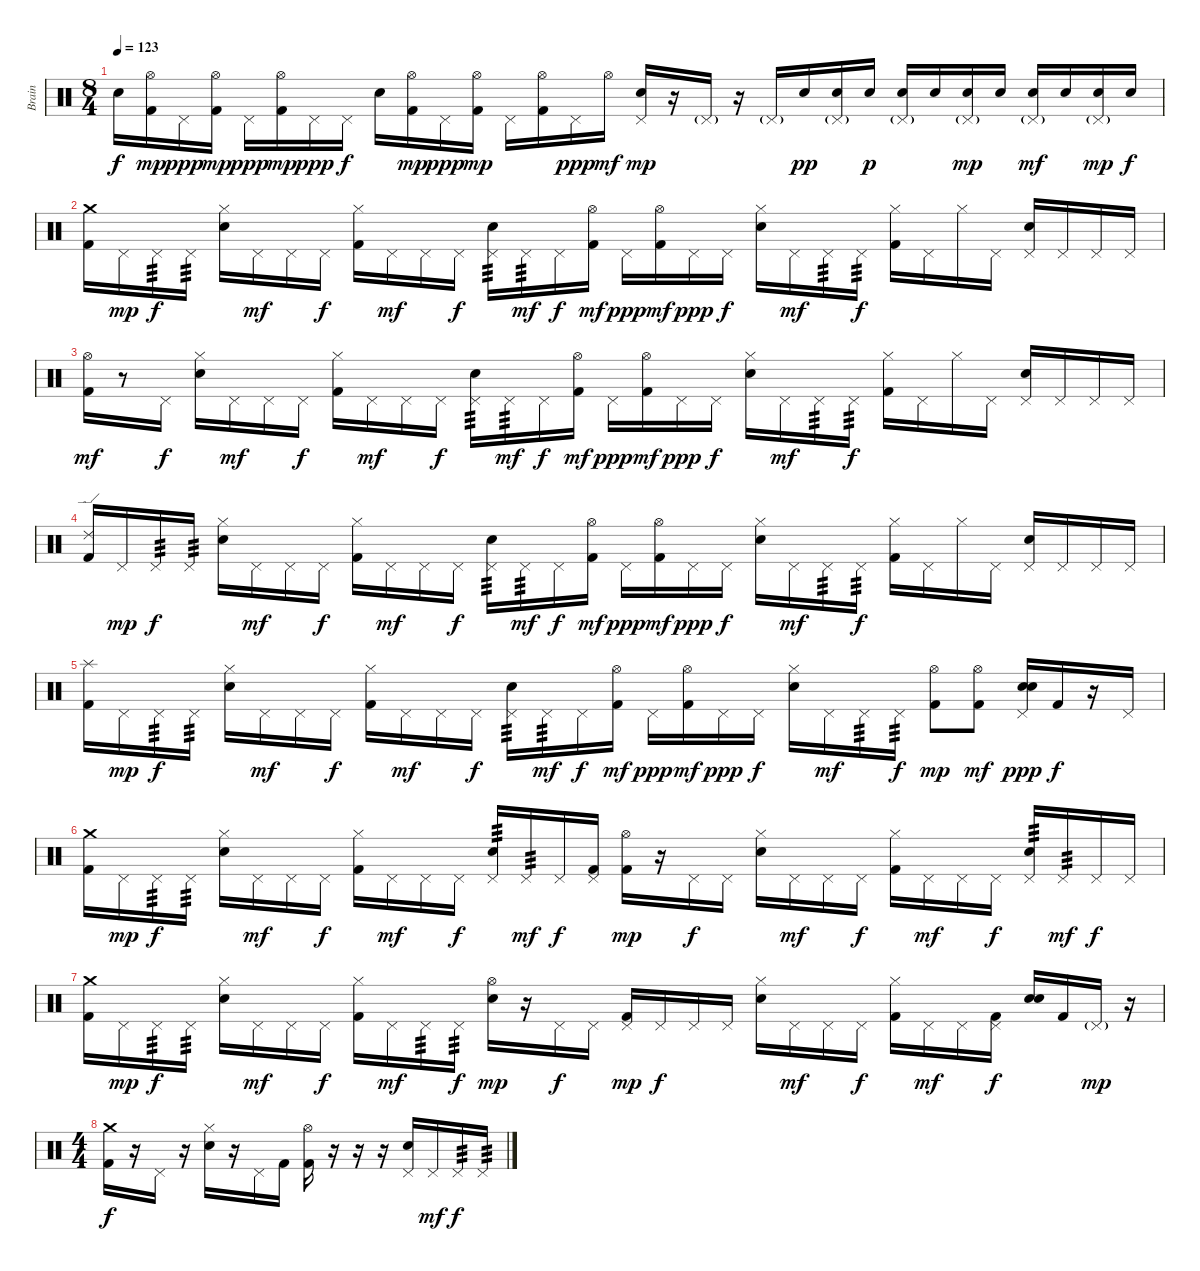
\track ("Brain" "Brain") {instrument percussion}
\staff {score}
\articulation defaults
\ts (8 4)
\tempo 123
\clef neutral
\ks c "Electric Snare (hit)".16{dy f}
("Hi-Hat (open)" "Kick (hit) 2").16{dy mp} "Pedal Hi-Hat (hit)".16{dy ppp} ("Hi-Hat (open)" "Kick (hit) 2").16{dy mp} "Pedal Hi-Hat (hit)".16{dy ppp} ("Hi-Hat (open)" "Kick (hit) 2").16{dy mp} "Pedal Hi-Hat (hit)".16{dy ppp} "Pedal Hi-Hat (hit)".16{dy f} "Electric Snare (hit)".16 ("Hi-Hat (open)" "Kick (hit) 2").16{dy mp} "Pedal Hi-Hat (hit)".16{dy ppp} ("Hi-Hat (open)" "Kick (hit) 2").16{dy mp} "Pedal Hi-Hat (hit)".16 ("Hi-Hat (open)" "Kick (hit) 2").16 "Pedal Hi-Hat (hit)".16{dy ppp} "Hi-Hat (open)".16{dy mf} ("Pedal Hi-Hat (hit)" "Electric Snare (hit)").16{dy mp} r.16 "Pedal Hi-Hat (hit)"{g}.16 r.16 "Pedal Hi-Hat (hit)"{g}.16 "Electric Snare (hit)".16{dy pp} ("Pedal Hi-Hat (hit)"{g} "Electric Snare (hit)").16 "Electric Snare (hit)".16{dy p} ("Pedal Hi-Hat (hit)"{g} "Electric Snare (hit)").16 "Electric Snare (hit)".16 ("Pedal Hi-Hat (hit)"{g} "Electric Snare (hit)").16{dy mp} "Electric Snare (hit)".16 ("Pedal Hi-Hat (hit)"{g} "Electric Snare (hit)").16{dy mf} "Electric Snare (hit)".16 ("Pedal Hi-Hat (hit)"{g} "Electric Snare (hit)").16{dy mp} "Electric Snare (hit)".16{dy f} |
("Crash medium (hit)" "Kick (hit) 2").16 "Pedal Hi-Hat (hit)".16{dy mp} "Pedal Hi-Hat (hit)".16{tp 3 dy f} "Pedal Hi-Hat (hit)".16{tp 3} ("Hi-Hat (closed)" "Electric Snare (hit)").16 "Pedal Hi-Hat (hit)".16{dy mf} "Pedal Hi-Hat (hit)".16 "Pedal Hi-Hat (hit)".16{dy f} ("Hi-Hat (closed)" "Kick (hit) 2").16 "Pedal Hi-Hat (hit)".16{dy mf} "Pedal Hi-Hat (hit)".16 "Pedal Hi-Hat (hit)".16{dy f} ("Pedal Hi-Hat (hit)" "Electric Snare (hit)").16{tp 3} "Pedal Hi-Hat (hit)".16{tp 3 dy mf} "Pedal Hi-Hat (hit)".16{dy f} ("Hi-Hat (open)" "Kick (hit) 2").16{dy mf} "Pedal Hi-Hat (hit)".16{dy ppp} ("Hi-Hat (open)" "Kick (hit) 2").16{dy mf} "Pedal Hi-Hat (hit)".16{dy ppp} "Pedal Hi-Hat (hit)".16{dy f} ("Hi-Hat (closed)" "Electric Snare (hit)").16 "Pedal Hi-Hat (hit)".16{dy mf} "Pedal Hi-Hat (hit)".16{tp 3} "Pedal Hi-Hat (hit)".16{tp 3 dy f} ("Hi-Hat (closed)" "Kick (hit) 2").16 "Pedal Hi-Hat (hit)".16 "Hi-Hat (closed)".16 "Pedal Hi-Hat (hit)".16 ("Pedal Hi-Hat (hit)" "Electric Snare (hit)").16 "Pedal Hi-Hat (hit)".16 "Pedal Hi-Hat (hit)".16 "Pedal Hi-Hat (hit)".16 |
("Hi-Hat (open)" "Kick (hit) 2").16{dy mf} r.8 "Pedal Hi-Hat (hit)".16{dy f} ("Hi-Hat (closed)" "Electric Snare (hit)").16 "Pedal Hi-Hat (hit)".16{dy mf} "Pedal Hi-Hat (hit)".16 "Pedal Hi-Hat (hit)".16{dy f} ("Hi-Hat (closed)" "Kick (hit) 2").16 "Pedal Hi-Hat (hit)".16{dy mf} "Pedal Hi-Hat (hit)".16 "Pedal Hi-Hat (hit)".16{dy f} ("Pedal Hi-Hat (hit)" "Electric Snare (hit)").16{tp 3} "Pedal Hi-Hat (hit)".16{tp 3 dy mf} "Pedal Hi-Hat (hit)".16{dy f} ("Hi-Hat (open)" "Kick (hit) 2").16{dy mf} "Pedal Hi-Hat (hit)".16{dy ppp} ("Hi-Hat (open)" "Kick (hit) 2").16{dy mf} "Pedal Hi-Hat (hit)".16{dy ppp} "Pedal Hi-Hat (hit)".16{dy f} ("Hi-Hat (closed)" "Electric Snare (hit)").16 "Pedal Hi-Hat (hit)".16{dy mf} "Pedal Hi-Hat (hit)".16{tp 3} "Pedal Hi-Hat (hit)".16{tp 3 dy f} ("Hi-Hat (closed)" "Kick (hit) 2").16 "Pedal Hi-Hat (hit)".16 "Hi-Hat (closed)".16 "Pedal Hi-Hat (hit)".16 ("Pedal Hi-Hat (hit)" "Electric Snare (hit)").16 "Pedal Hi-Hat (hit)".16 "Pedal Hi-Hat (hit)".16 "Pedal Hi-Hat (hit)".16 |
("Ride (edge) 2" "Kick (hit) 2").16 "Pedal Hi-Hat (hit)".16{dy mp} "Pedal Hi-Hat (hit)".16{tp 3 dy f} "Pedal Hi-Hat (hit)".16{tp 3} ("Hi-Hat (closed)" "Electric Snare (hit)").16 "Pedal Hi-Hat (hit)".16{dy mf} "Pedal Hi-Hat (hit)".16 "Pedal Hi-Hat (hit)".16{dy f} ("Hi-Hat (closed)" "Kick (hit) 2").16 "Pedal Hi-Hat (hit)".16{dy mf} "Pedal Hi-Hat (hit)".16 "Pedal Hi-Hat (hit)".16{dy f} ("Pedal Hi-Hat (hit)" "Electric Snare (hit)").16{tp 3} "Pedal Hi-Hat (hit)".16{tp 3 dy mf} "Pedal Hi-Hat (hit)".16{dy f} ("Hi-Hat (open)" "Kick (hit) 2").16{dy mf} "Pedal Hi-Hat (hit)".16{dy ppp} ("Hi-Hat (open)" "Kick (hit) 2").16{dy mf} "Pedal Hi-Hat (hit)".16{dy ppp} "Pedal Hi-Hat (hit)".16{dy f} ("Hi-Hat (closed)" "Electric Snare (hit)").16 "Pedal Hi-Hat (hit)".16{dy mf} "Pedal Hi-Hat (hit)".16{tp 3} "Pedal Hi-Hat (hit)".16{tp 3 dy f} ("Hi-Hat (closed)" "Kick (hit) 2").16 "Pedal Hi-Hat (hit)".16 "Hi-Hat (closed)".16 "Pedal Hi-Hat (hit)".16 ("Pedal Hi-Hat (hit)" "Electric Snare (hit)").16 "Pedal Hi-Hat (hit)".16 "Pedal Hi-Hat (hit)".16 "Pedal Hi-Hat (hit)".16 |
("Splash (hit)" "Kick (hit) 2").16 "Pedal Hi-Hat (hit)".16{dy mp} "Pedal Hi-Hat (hit)".16{tp 3 dy f} "Pedal Hi-Hat (hit)".16{tp 3} ("Hi-Hat (closed)" "Electric Snare (hit)").16 "Pedal Hi-Hat (hit)".16{dy mf} "Pedal Hi-Hat (hit)".16 "Pedal Hi-Hat (hit)".16{dy f} ("Hi-Hat (closed)" "Kick (hit) 2").16 "Pedal Hi-Hat (hit)".16{dy mf} "Pedal Hi-Hat (hit)".16 "Pedal Hi-Hat (hit)".16{dy f} ("Pedal Hi-Hat (hit)" "Electric Snare (hit)").16{tp 3} "Pedal Hi-Hat (hit)".16{tp 3 dy mf} "Pedal Hi-Hat (hit)".16{dy f} ("Hi-Hat (open)" "Kick (hit) 2").16{dy mf} "Pedal Hi-Hat (hit)".16{dy ppp} ("Hi-Hat (open)" "Kick (hit) 2").16{dy mf} "Pedal Hi-Hat (hit)".16{dy ppp} "Pedal Hi-Hat (hit)".16{dy f} ("Hi-Hat (closed)" "Electric Snare (hit)").16 "Pedal Hi-Hat (hit)".16{dy mf} "Pedal Hi-Hat (hit)".16{tp 3} "Pedal Hi-Hat (hit)".16{tp 3 dy f} ("Hi-Hat (open)" "Kick (hit) 2").8{dy mp} ("Hi-Hat (open)" "Kick (hit) 2").8{dy mf} ("Pedal Hi-Hat (hit)" "Electric Snare (hit)" "Electric Snare (hit)").16{bd 60 dy ppp} "Kick (hit) 2".16{dy f} r.16 "Pedal Hi-Hat (hit)".16 |
("Crash medium (hit)" "Kick (hit) 2").16 "Pedal Hi-Hat (hit)".16{dy mp} "Pedal Hi-Hat (hit)".16{tp 3 dy f} "Pedal Hi-Hat (hit)".16{tp 3} ("Hi-Hat (closed)" "Electric Snare (hit)").16 "Pedal Hi-Hat (hit)".16{dy mf} "Pedal Hi-Hat (hit)".16 "Pedal Hi-Hat (hit)".16{dy f} ("Hi-Hat (closed)" "Kick (hit) 2").16 "Pedal Hi-Hat (hit)".16{dy mf} "Pedal Hi-Hat (hit)".16 "Pedal Hi-Hat (hit)".16{dy f} ("Pedal Hi-Hat (hit)" "Electric Snare (hit)").16{tp 3} "Pedal Hi-Hat (hit)".16{tp 3 dy mf} "Pedal Hi-Hat (hit)".16{dy f} ("Pedal Hi-Hat (hit)" "Kick (hit) 2").16 ("Hi-Hat (open)" "Kick (hit) 2").16{dy mp} r.16 "Pedal Hi-Hat (hit)".16{dy f} "Pedal Hi-Hat (hit)".16 ("Hi-Hat (closed)" "Electric Snare (hit)").16 "Pedal Hi-Hat (hit)".16{dy mf} "Pedal Hi-Hat (hit)".16 "Pedal Hi-Hat (hit)".16{dy f} ("Hi-Hat (closed)" "Kick (hit) 2").16 "Pedal Hi-Hat (hit)".16{dy mf} "Pedal Hi-Hat (hit)".16 "Pedal Hi-Hat (hit)".16{dy f} ("Pedal Hi-Hat (hit)" "Electric Snare (hit)").16{tp 3} "Pedal Hi-Hat (hit)".16{tp 3 dy mf} "Pedal Hi-Hat (hit)".16{dy f} "Pedal Hi-Hat (hit)".16 |
("Crash medium (hit)" "Kick (hit) 2").16 "Pedal Hi-Hat (hit)".16{dy mp} "Pedal Hi-Hat (hit)".16{tp 3 dy f} "Pedal Hi-Hat (hit)".16{tp 3} ("Hi-Hat (closed)" "Electric Snare (hit)").16 "Pedal Hi-Hat (hit)".16{dy mf} "Pedal Hi-Hat (hit)".16 "Pedal Hi-Hat (hit)".16{dy f} ("Hi-Hat (closed)" "Kick (hit) 2").16 "Pedal Hi-Hat (hit)".16{dy mf} "Pedal Hi-Hat (hit)".16{tp 3} "Pedal Hi-Hat (hit)".16{tp 3 dy f} ("Hi-Hat (open)" "Electric Snare (hit)").16{dy mp} r.16 "Pedal Hi-Hat (hit)".16{dy f} "Pedal Hi-Hat (hit)".16 ("Pedal Hi-Hat (hit)" "Kick (hit) 2").16{dy mp} "Pedal Hi-Hat (hit)".16{dy f} "Pedal Hi-Hat (hit)".16 "Pedal Hi-Hat (hit)".16 ("Hi-Hat (closed)" "Electric Snare (hit)").16 "Pedal Hi-Hat (hit)".16{dy mf} "Pedal Hi-Hat (hit)".16 "Pedal Hi-Hat (hit)".16{dy f} ("Hi-Hat (closed)" "Kick (hit) 2").16 "Pedal Hi-Hat (hit)".16{dy mf} "Pedal Hi-Hat (hit)".16 ("Pedal Hi-Hat (hit)" "Kick (hit) 2").16{dy f} ("Electric Snare (hit)" "Electric Snare (hit)").16{bd 60} "Kick (hit) 2".16 "Pedal Hi-Hat (hit)"{g}.16{dy mp} r.16 |
\ts (4 4)
("Crash medium (hit)" "Kick (hit) 2").16{dy f} r.16 "Pedal Hi-Hat (hit)".16 r.16 ("Hi-Hat (closed)" "Electric Snare (hit)").16 r.16 "Pedal Hi-Hat (hit)".16 "Kick (hit) 2".16 ("Hi-Hat (open)" "Kick (hit) 2").16 r.16 r.16 r.16 ("Pedal Hi-Hat (hit)" "Electric Snare (hit)").16 "Pedal Hi-Hat (hit)".16{dy mf} "Pedal Hi-Hat (hit)".16{tp 3 dy f} "Pedal Hi-Hat (hit)".16{tp 3}
